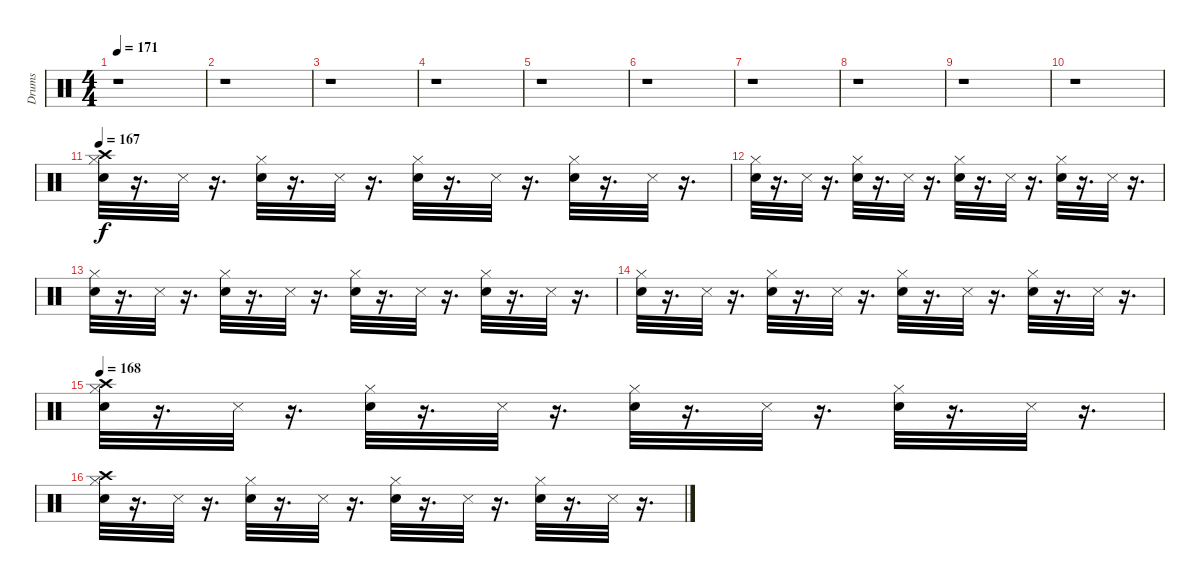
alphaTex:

\track ("Drums" "Drums") {instrument percussion}
\staff {score}
\articulation defaults
\ts (4 4)
\tempo 171
\clef neutral
\ks c
r.1{dy f} |
r.1 |
r.1 |
r.1 |
r.1 |
r.1 |
r.1 |
r.1 |
r.1 |
r.1 |
\tempo 167
("Crash high (hit)" "Snare (hit) 2" "Hi-Hat (closed)").32 r.16{d} "Metronome (hit)".32 r.16{d} ("Snare (hit) 2" "Hi-Hat (closed)").32 r.16{d} "Metronome (hit)".32 r.16{d} ("Snare (hit) 2" "Hi-Hat (closed)").32 r.16{d} "Metronome (hit)".32 r.16{d} ("Snare (hit) 2" "Hi-Hat (closed)").32 r.16{d} "Metronome (hit)".32 r.16{d} |
("Snare (hit) 2" "Hi-Hat (closed)").32 r.16{d} "Metronome (hit)".32 r.16{d} ("Snare (hit) 2" "Hi-Hat (closed)").32 r.16{d} "Metronome (hit)".32 r.16{d} ("Snare (hit) 2" "Hi-Hat (closed)").32 r.16{d} "Metronome (hit)".32 r.16{d} ("Snare (hit) 2" "Hi-Hat (closed)").32 r.16{d} "Metronome (hit)".32 r.16{d} |
("Snare (hit) 2" "Hi-Hat (closed)").32 r.16{d} "Metronome (hit)".32 r.16{d} ("Snare (hit) 2" "Hi-Hat (closed)").32 r.16{d} "Metronome (hit)".32 r.16{d} ("Snare (hit) 2" "Hi-Hat (closed)").32 r.16{d} "Metronome (hit)".32 r.16{d} ("Snare (hit) 2" "Hi-Hat (closed)").32 r.16{d} "Metronome (hit)".32 r.16{d} |
("Snare (hit) 2" "Hi-Hat (closed)").32 r.16{d} "Metronome (hit)".32 r.16{d} ("Snare (hit) 2" "Hi-Hat (closed)").32 r.16{d} "Metronome (hit)".32 r.16{d} ("Snare (hit) 2" "Hi-Hat (closed)").32 r.16{d} "Metronome (hit)".32 r.16{d} ("Snare (hit) 2" "Hi-Hat (closed)").32 r.16{d} "Metronome (hit)".32 r.16{d} |
\tempo 168
("Crash high (hit)" "Snare (hit) 2" "Hi-Hat (closed)").32 r.16{d} "Metronome (hit)".32 r.16{d} ("Snare (hit) 2" "Hi-Hat (closed)").32 r.16{d} "Metronome (hit)".32 r.16{d} ("Snare (hit) 2" "Hi-Hat (closed)").32 r.16{d} "Metronome (hit)".32 r.16{d} ("Snare (hit) 2" "Hi-Hat (closed)").32 r.16{d} "Metronome (hit)".32 r.16{d} |
("Crash high (hit)" "Snare (hit) 2" "Hi-Hat (closed)").32 r.16{d} "Metronome (hit)".32 r.16{d} ("Snare (hit) 2" "Hi-Hat (closed)").32 r.16{d} "Metronome (hit)".32 r.16{d} ("Snare (hit) 2" "Hi-Hat (closed)").32 r.16{d} "Metronome (hit)".32 r.16{d} ("Snare (hit) 2" "Hi-Hat (closed)").32 r.16{d} "Metronome (hit)".32 r.16{d}
